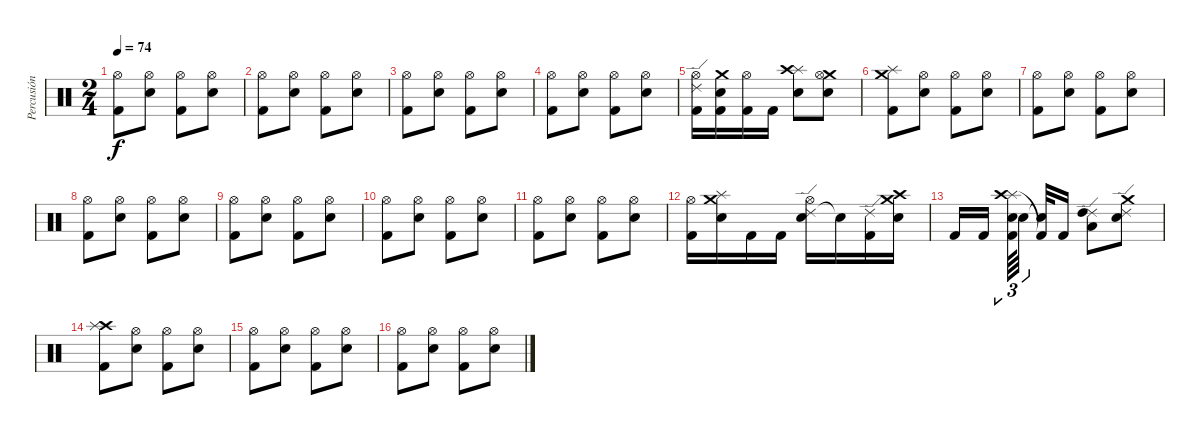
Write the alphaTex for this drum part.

\track ("Percusión" "Percusión") {instrument percussion}
\staff {score}
\articulation defaults
\ts (2 4)
\tempo 74
\clef neutral
\ks c
("Hi-Hat (open)" "Kick (hit) 2").8{dy f} ("Hi-Hat (open)" "Electric Snare (hit)").8 ("Hi-Hat (open)" "Kick (hit) 2").8 ("Hi-Hat (open)" "Electric Snare (hit)").8 |
("Hi-Hat (open)" "Kick (hit) 2").8 ("Hi-Hat (open)" "Electric Snare (hit)").8 ("Hi-Hat (open)" "Kick (hit) 2").8 ("Hi-Hat (open)" "Electric Snare (hit)").8 |
("Hi-Hat (open)" "Kick (hit) 2").8 ("Hi-Hat (open)" "Electric Snare (hit)").8 ("Hi-Hat (open)" "Kick (hit) 2").8 ("Hi-Hat (open)" "Electric Snare (hit)").8 |
("Hi-Hat (open)" "Kick (hit) 2").8 ("Hi-Hat (open)" "Electric Snare (hit)").8 ("Hi-Hat (open)" "Kick (hit) 2").8 ("Hi-Hat (open)" "Electric Snare (hit)").8 |
("Ride (edge) 2" "Hi-Hat (open)" "Kick (hit) 2").16 ("Crash medium (hit)" "Electric Snare (hit)" "Kick (hit) 2").16 ("Hi-Hat (open)" "Kick (hit) 2").16 "Kick (hit) 2".16 ("Splash (hit)" "Crash high (hit)" "Electric Snare (hit)").8 ("Crash medium (hit)" "Hi-Hat (open)" "Electric Snare (hit)").8 |
("Crash medium (hit)" "Splash (hit)" "Kick (hit) 2").8 ("Hi-Hat (open)" "Electric Snare (hit)").8 ("Hi-Hat (open)" "Kick (hit) 2").8 ("Hi-Hat (open)" "Electric Snare (hit)").8 |
("Hi-Hat (open)" "Kick (hit) 2").8 ("Hi-Hat (open)" "Electric Snare (hit)").8 ("Hi-Hat (open)" "Kick (hit) 2").8 ("Hi-Hat (open)" "Electric Snare (hit)").8 |
("Hi-Hat (open)" "Kick (hit) 2").8 ("Hi-Hat (open)" "Electric Snare (hit)").8 ("Hi-Hat (open)" "Kick (hit) 2").8 ("Hi-Hat (open)" "Electric Snare (hit)").8 |
("Hi-Hat (open)" "Kick (hit) 2").8 ("Hi-Hat (open)" "Electric Snare (hit)").8 ("Hi-Hat (open)" "Kick (hit) 2").8 ("Hi-Hat (open)" "Electric Snare (hit)").8 |
("Hi-Hat (open)" "Kick (hit) 2").8 ("Hi-Hat (open)" "Electric Snare (hit)").8 ("Hi-Hat (open)" "Kick (hit) 2").8 ("Hi-Hat (open)" "Electric Snare (hit)").8 |
("Hi-Hat (open)" "Kick (hit) 2").8 ("Hi-Hat (open)" "Electric Snare (hit)").8 ("Hi-Hat (open)" "Kick (hit) 2").8 ("Hi-Hat (open)" "Electric Snare (hit)").8 |
("Hi-Hat (open)" "Kick (hit) 2").16 ("Crash medium (hit)" "Splash (hit)" "Electric Snare (hit)").16 "Kick (hit) 2".16 "Kick (hit) 2".16 ("Ride (edge) 2" "Hi-Hat (open)" "Electric Snare (hit)").16 "Snare (hit)"{t}.16 ("Ride (edge) 2" "Kick (hit) 2").16 ("Crash medium (hit)" "Crash high (hit)" "Electric Snare (hit)").16 |
"Kick (hit) 2".16 "Kick (hit) 2".16{beam splitsecondary} ("Splash (hit)" "Crash high (hit)" "Electric Snare (hit)" "Kick (hit) 2").64{tu (3 2)} "Electric Snare (hit)".32{tu (3 2) beam splitsecondary} ("Electric Snare (hit)"{t} "Kick (hit) 2"{t}).32 "Kick (hit) 2".16 ("Ride (edge) 2" "Low Tom (hit)" "High Tom (hit)").8 ("Ride (edge) 2" "Crash medium (hit)" "Electric Snare (hit)").8 |
("Crash high (hit)" "Splash (hit)" "Kick (hit) 2").8 ("Hi-Hat (open)" "Electric Snare (hit)").8 ("Hi-Hat (open)" "Kick (hit) 2").8 ("Hi-Hat (open)" "Electric Snare (hit)").8 |
("Hi-Hat (open)" "Kick (hit) 2").8 ("Hi-Hat (open)" "Electric Snare (hit)").8 ("Hi-Hat (open)" "Kick (hit) 2").8 ("Hi-Hat (open)" "Electric Snare (hit)").8 |
("Hi-Hat (open)" "Kick (hit) 2").8 ("Hi-Hat (open)" "Electric Snare (hit)").8 ("Hi-Hat (open)" "Kick (hit) 2").8 ("Hi-Hat (open)" "Electric Snare (hit)").8
